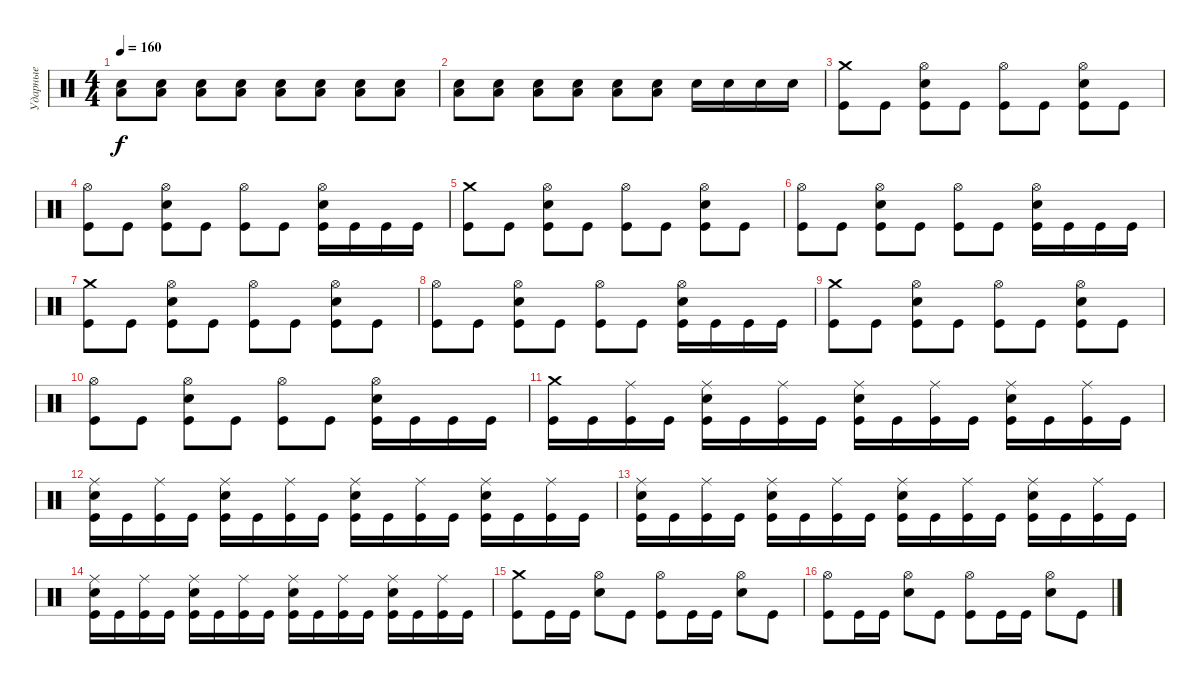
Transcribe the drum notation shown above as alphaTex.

\track ("Ударные" "Ударные") {instrument percussion}
\staff {score}
\articulation defaults
\ts (4 4)
\tempo 160
\clef neutral
\ks c
("Snare (hit) 2" "Low Tom (hit)").8{dy f} ("Snare (hit) 2" "Low Tom (hit)").8 ("Snare (hit) 2" "Low Tom (hit)").8 ("Snare (hit) 2" "Low Tom (hit)").8 ("Snare (hit) 2" "Low Tom (hit)").8 ("Snare (hit) 2" "Low Tom (hit)").8 ("Snare (hit) 2" "Low Tom (hit)").8 ("Snare (hit) 2" "Low Tom (hit)").8 |
("Snare (hit) 2" "Low Tom (hit)").8 ("Snare (hit) 2" "Low Tom (hit)").8 ("Snare (hit) 2" "Low Tom (hit)").8 ("Snare (hit) 2" "Low Tom (hit)").8 ("Snare (hit) 2" "Low Tom (hit)").8 ("Snare (hit) 2" "Low Tom (hit)").8 "Snare (hit) 2".16 "Snare (hit) 2".16 "Snare (hit) 2".16 "Snare (hit) 2".16 |
("Kick (hit)" "Crash medium (hit)").8 "Kick (hit)".8 ("Kick (hit)" "Snare (hit) 2" "Hi-Hat (open)").8 "Kick (hit)".8 ("Kick (hit)" "Hi-Hat (open)").8 "Kick (hit)".8 ("Kick (hit)" "Snare (hit) 2" "Hi-Hat (open)").8 "Kick (hit)".8 |
("Kick (hit)" "Hi-Hat (open)").8 "Kick (hit)".8 ("Kick (hit)" "Snare (hit) 2" "Hi-Hat (open)").8 "Kick (hit)".8 ("Kick (hit)" "Hi-Hat (open)").8 "Kick (hit)".8 ("Kick (hit)" "Snare (hit) 2" "Hi-Hat (open)").16 "Kick (hit)".16 "Kick (hit)".16 "Kick (hit)".16 |
("Kick (hit)" "Crash medium (hit)").8 "Kick (hit)".8 ("Kick (hit)" "Snare (hit) 2" "Hi-Hat (open)").8 "Kick (hit)".8 ("Kick (hit)" "Hi-Hat (open)").8 "Kick (hit)".8 ("Kick (hit)" "Snare (hit) 2" "Hi-Hat (open)").8 "Kick (hit)".8 |
("Kick (hit)" "Hi-Hat (open)").8 "Kick (hit)".8 ("Kick (hit)" "Snare (hit) 2" "Hi-Hat (open)").8 "Kick (hit)".8 ("Kick (hit)" "Hi-Hat (open)").8 "Kick (hit)".8 ("Kick (hit)" "Snare (hit) 2" "Hi-Hat (open)").16 "Kick (hit)".16 "Kick (hit)".16 "Kick (hit)".16 |
("Kick (hit)" "Crash medium (hit)").8 "Kick (hit)".8 ("Kick (hit)" "Snare (hit) 2" "Hi-Hat (open)").8 "Kick (hit)".8 ("Kick (hit)" "Hi-Hat (open)").8 "Kick (hit)".8 ("Kick (hit)" "Snare (hit) 2" "Hi-Hat (open)").8 "Kick (hit)".8 |
("Kick (hit)" "Hi-Hat (open)").8 "Kick (hit)".8 ("Kick (hit)" "Snare (hit) 2" "Hi-Hat (open)").8 "Kick (hit)".8 ("Kick (hit)" "Hi-Hat (open)").8 "Kick (hit)".8 ("Kick (hit)" "Snare (hit) 2" "Hi-Hat (open)").16 "Kick (hit)".16 "Kick (hit)".16 "Kick (hit)".16 |
("Kick (hit)" "Crash medium (hit)").8 "Kick (hit)".8 ("Kick (hit)" "Snare (hit) 2" "Hi-Hat (open)").8 "Kick (hit)".8 ("Kick (hit)" "Hi-Hat (open)").8 "Kick (hit)".8 ("Kick (hit)" "Snare (hit) 2" "Hi-Hat (open)").8 "Kick (hit)".8 |
("Kick (hit)" "Hi-Hat (open)").8 "Kick (hit)".8 ("Kick (hit)" "Snare (hit) 2" "Hi-Hat (open)").8 "Kick (hit)".8 ("Kick (hit)" "Hi-Hat (open)").8 "Kick (hit)".8 ("Kick (hit)" "Snare (hit) 2" "Hi-Hat (open)").16 "Kick (hit)".16 "Kick (hit)".16 "Kick (hit)".16 |
("Kick (hit)" "Crash medium (hit)").16 "Kick (hit)".16 ("Kick (hit)" "Ride (middle)").16 "Kick (hit)".16 ("Kick (hit)" "Snare (hit) 2" "Ride (middle)").16 "Kick (hit)".16 ("Kick (hit)" "Ride (middle)").16 "Kick (hit)".16 ("Kick (hit)" "Snare (hit) 2" "Ride (middle)").16 "Kick (hit)".16 ("Kick (hit)" "Ride (middle)").16 "Kick (hit)".16 ("Kick (hit)" "Snare (hit) 2" "Ride (middle)").16 "Kick (hit)".16 ("Kick (hit)" "Ride (middle)").16 "Kick (hit)".16 |
("Kick (hit)" "Snare (hit) 2" "Ride (middle)").16 "Kick (hit)".16 ("Kick (hit)" "Ride (middle)").16 "Kick (hit)".16 ("Kick (hit)" "Snare (hit) 2" "Ride (middle)").16 "Kick (hit)".16 ("Kick (hit)" "Ride (middle)").16 "Kick (hit)".16 ("Kick (hit)" "Snare (hit) 2" "Ride (middle)").16 "Kick (hit)".16 ("Kick (hit)" "Ride (middle)").16 "Kick (hit)".16 ("Kick (hit)" "Snare (hit) 2" "Ride (middle)").16 "Kick (hit)".16 ("Kick (hit)" "Ride (middle)").16 "Kick (hit)".16 |
("Kick (hit)" "Snare (hit) 2" "Ride (middle)").16 "Kick (hit)".16 ("Kick (hit)" "Ride (middle)").16 "Kick (hit)".16 ("Kick (hit)" "Snare (hit) 2" "Ride (middle)").16 "Kick (hit)".16 ("Kick (hit)" "Ride (middle)").16 "Kick (hit)".16 ("Kick (hit)" "Snare (hit) 2" "Ride (middle)").16 "Kick (hit)".16 ("Kick (hit)" "Ride (middle)").16 "Kick (hit)".16 ("Kick (hit)" "Snare (hit) 2" "Ride (middle)").16 "Kick (hit)".16 ("Kick (hit)" "Ride (middle)").16 "Kick (hit)".16 |
("Kick (hit)" "Snare (hit) 2" "Ride (middle)").16 "Kick (hit)".16 ("Kick (hit)" "Ride (middle)").16 "Kick (hit)".16 ("Kick (hit)" "Snare (hit) 2" "Ride (middle)").16 "Kick (hit)".16 ("Kick (hit)" "Ride (middle)").16 "Kick (hit)".16 ("Kick (hit)" "Snare (hit) 2" "Ride (middle)").16 "Kick (hit)".16 ("Kick (hit)" "Ride (middle)").16 "Kick (hit)".16 ("Kick (hit)" "Snare (hit) 2" "Ride (middle)").16 "Kick (hit)".16 ("Kick (hit)" "Ride (middle)").16 "Kick (hit)".16 |
("Kick (hit)" "Crash medium (hit)").8 "Kick (hit)".16 "Kick (hit)".16 ("Snare (hit) 2" "Hi-Hat (open)").8 "Kick (hit)".8 ("Kick (hit)" "Hi-Hat (open)").8 "Kick (hit)".16 "Kick (hit)".16 ("Snare (hit) 2" "Hi-Hat (open)").8 "Kick (hit)".8 |
("Kick (hit)" "Hi-Hat (open)").8 "Kick (hit)".16 "Kick (hit)".16 ("Snare (hit) 2" "Hi-Hat (open)").8 "Kick (hit)".8 ("Kick (hit)" "Hi-Hat (open)").8 "Kick (hit)".16 "Kick (hit)".16 ("Snare (hit) 2" "Hi-Hat (open)").8 "Kick (hit)".8
